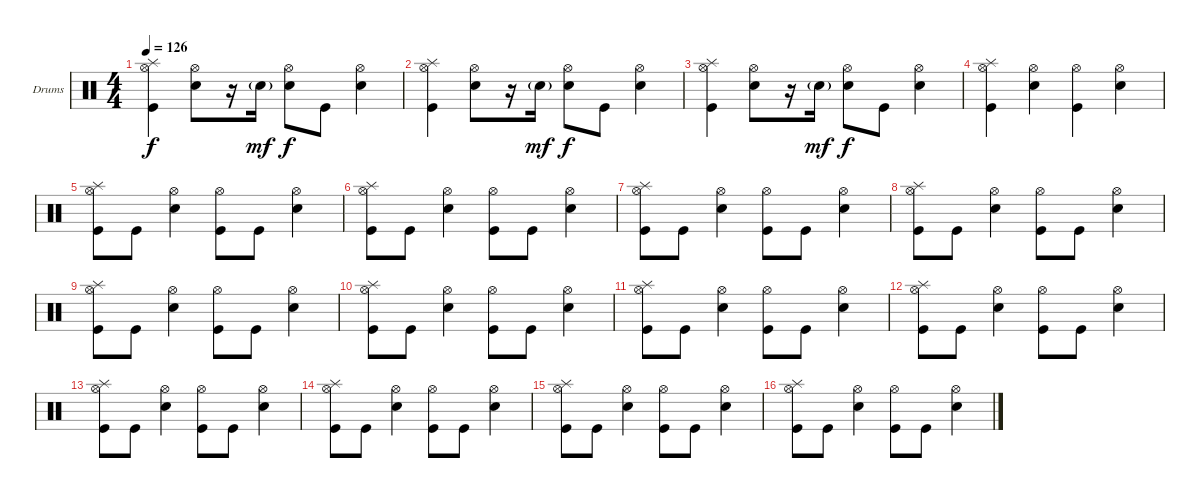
\bracketExtendMode groupsimilarinstruments
\firstSystemTrackNameOrientation horizontal
\otherSystemsTrackNameOrientation horizontal
\track ("Drumkit" "Drums") {instrument percussion}
\staff {score}
\articulation defaults
\ts (4 4)
\tempo 126
\clef neutral
\ks c
("Kick (hit)" "Hi-Hat (open)" "Splash (hit)").4{dy f} ("Snare (hit) 2" "Hi-Hat (open)").8 r.16 "Snare (hit) 2"{g}.16{dy mf} ("Snare (hit) 2" "Hi-Hat (open)").8{dy f} "Kick (hit)".8 ("Snare (hit) 2" "Hi-Hat (open)").4 |
("Kick (hit)" "Hi-Hat (open)" "Splash (hit)").4 ("Snare (hit) 2" "Hi-Hat (open)").8 r.16 "Snare (hit) 2"{g}.16{dy mf} ("Snare (hit) 2" "Hi-Hat (open)").8{dy f} "Kick (hit)".8 ("Snare (hit) 2" "Hi-Hat (open)").4 |
("Kick (hit)" "Hi-Hat (open)" "Splash (hit)").4 ("Snare (hit) 2" "Hi-Hat (open)").8 r.16 "Snare (hit) 2"{g}.16{dy mf} ("Snare (hit) 2" "Hi-Hat (open)").8{dy f} "Kick (hit)".8 ("Snare (hit) 2" "Hi-Hat (open)").4 |
("Kick (hit)" "Hi-Hat (open)" "Splash (hit)").4 ("Snare (hit) 2" "Hi-Hat (open)").4 ("Kick (hit)" "Hi-Hat (open)").4 ("Snare (hit) 2" "Hi-Hat (open)").4 |
("Kick (hit)" "Hi-Hat (open)" "Splash (hit)").8 "Kick (hit)".8 ("Snare (hit) 2" "Hi-Hat (open)").4 ("Kick (hit)" "Hi-Hat (open)").8 "Kick (hit)".8 ("Snare (hit) 2" "Hi-Hat (open)").4 |
("Kick (hit)" "Hi-Hat (open)" "Splash (hit)").8 "Kick (hit)".8 ("Snare (hit) 2" "Hi-Hat (open)").4 ("Kick (hit)" "Hi-Hat (open)").8 "Kick (hit)".8 ("Snare (hit) 2" "Hi-Hat (open)").4 |
("Kick (hit)" "Hi-Hat (open)" "Splash (hit)").8 "Kick (hit)".8 ("Snare (hit) 2" "Hi-Hat (open)").4 ("Kick (hit)" "Hi-Hat (open)").8 "Kick (hit)".8 ("Snare (hit) 2" "Hi-Hat (open)").4 |
("Kick (hit)" "Hi-Hat (open)" "Splash (hit)").8 "Kick (hit)".8 ("Snare (hit) 2" "Hi-Hat (open)").4 ("Kick (hit)" "Hi-Hat (open)").8 "Kick (hit)".8 ("Snare (hit) 2" "Hi-Hat (open)").4 |
("Kick (hit)" "Hi-Hat (open)" "Splash (hit)").8 "Kick (hit)".8 ("Snare (hit) 2" "Hi-Hat (open)").4 ("Kick (hit)" "Hi-Hat (open)").8 "Kick (hit)".8 ("Snare (hit) 2" "Hi-Hat (open)").4 |
("Kick (hit)" "Hi-Hat (open)" "Splash (hit)").8 "Kick (hit)".8 ("Snare (hit) 2" "Hi-Hat (open)").4 ("Kick (hit)" "Hi-Hat (open)").8 "Kick (hit)".8 ("Snare (hit) 2" "Hi-Hat (open)").4 |
("Kick (hit)" "Hi-Hat (open)" "Splash (hit)").8 "Kick (hit)".8 ("Snare (hit) 2" "Hi-Hat (open)").4 ("Kick (hit)" "Hi-Hat (open)").8 "Kick (hit)".8 ("Snare (hit) 2" "Hi-Hat (open)").4 |
("Kick (hit)" "Hi-Hat (open)" "Splash (hit)").8 "Kick (hit)".8 ("Snare (hit) 2" "Hi-Hat (open)").4 ("Kick (hit)" "Hi-Hat (open)").8 "Kick (hit)".8 ("Snare (hit) 2" "Hi-Hat (open)").4 |
("Kick (hit)" "Hi-Hat (open)" "Splash (hit)").8 "Kick (hit)".8 ("Snare (hit) 2" "Hi-Hat (open)").4 ("Kick (hit)" "Hi-Hat (open)").8 "Kick (hit)".8 ("Snare (hit) 2" "Hi-Hat (open)").4 |
("Kick (hit)" "Hi-Hat (open)" "Splash (hit)").8 "Kick (hit)".8 ("Snare (hit) 2" "Hi-Hat (open)").4 ("Kick (hit)" "Hi-Hat (open)").8 "Kick (hit)".8 ("Snare (hit) 2" "Hi-Hat (open)").4 |
("Kick (hit)" "Hi-Hat (open)" "Splash (hit)").8 "Kick (hit)".8 ("Snare (hit) 2" "Hi-Hat (open)").4 ("Kick (hit)" "Hi-Hat (open)").8 "Kick (hit)".8 ("Snare (hit) 2" "Hi-Hat (open)").4 |
("Kick (hit)" "Hi-Hat (open)" "Splash (hit)").8 "Kick (hit)".8 ("Snare (hit) 2" "Hi-Hat (open)").4 ("Kick (hit)" "Hi-Hat (open)").8 "Kick (hit)".8 ("Snare (hit) 2" "Hi-Hat (open)").4
